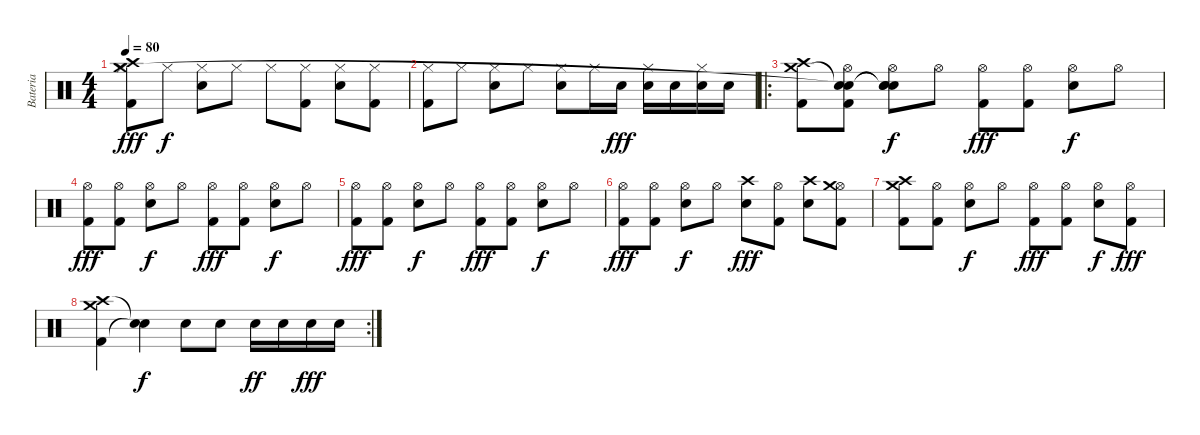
\track ("Bateria" "Bateria") {instrument percussion}
\staff {score}
\articulation defaults
\ts (4 4)
\tempo 80
\clef neutral
\ks c
("Hi-Hat (closed)" "Kick (hit) 2" "Crash high (hit)" "Crash medium (hit)").8{dy fff} "Hi-Hat (closed)".8{dy f} ("Hi-Hat (closed)" "Snare (hit) 2").8 "Hi-Hat (closed)".8 "Hi-Hat (closed)".8 ("Hi-Hat (closed)" "Kick (hit) 2").8 ("Hi-Hat (closed)" "Snare (hit) 2").8 ("Hi-Hat (closed)" "Kick (hit) 2").8 |
("Hi-Hat (closed)" "Kick (hit) 2").8 "Hi-Hat (closed)".8 ("Hi-Hat (closed)" "Snare (hit) 2").8 "Hi-Hat (closed)".8 ("Hi-Hat (closed)" "Snare (hit) 2").8 "Hi-Hat (closed)".16 "Snare (hit) 2".16{dy fff} ("Hi-Hat (closed)" "Snare (hit) 2").16 "Snare (hit) 2".16 ("Hi-Hat (closed)" "Snare (hit) 2").16 "Snare (hit) 2".16 |
\ro
("Kick (hit) 2" "Crash high (hit)" "Crash medium (hit)").8 ("Hi-Hat (open)" "Kick (hit) 2" "Snare (hit)"{t} "Snare (hit)"{t}).8 ("Hi-Hat (open)" "Snare (hit) 2" "Snare (hit)"{t} "Snare (hit)"{t}).8{dy f} "Hi-Hat (open)".8 ("Hi-Hat (open)" "Kick (hit) 2").8{dy fff} ("Hi-Hat (open)" "Kick (hit) 2").8 ("Hi-Hat (open)" "Snare (hit) 2").8{dy f} "Hi-Hat (open)".8 |
("Hi-Hat (open)" "Kick (hit) 2").8{dy fff} ("Hi-Hat (open)" "Kick (hit) 2").8 ("Hi-Hat (open)" "Snare (hit) 2").8{dy f} "Hi-Hat (open)".8 ("Hi-Hat (open)" "Kick (hit) 2").8{dy fff} ("Hi-Hat (open)" "Kick (hit) 2").8 ("Hi-Hat (open)" "Snare (hit) 2").8{dy f} "Hi-Hat (open)".8 |
("Hi-Hat (open)" "Kick (hit) 2").8{dy fff} ("Hi-Hat (open)" "Kick (hit) 2").8 ("Hi-Hat (open)" "Snare (hit) 2").8{dy f} "Hi-Hat (open)".8 ("Hi-Hat (open)" "Kick (hit) 2").8{dy fff} ("Hi-Hat (open)" "Kick (hit) 2").8 ("Hi-Hat (open)" "Snare (hit) 2").8{dy f} "Hi-Hat (open)".8 |
("Hi-Hat (open)" "Kick (hit) 2").8{dy fff} ("Hi-Hat (open)" "Kick (hit) 2").8 ("Hi-Hat (open)" "Snare (hit) 2").8{dy f} "Hi-Hat (open)".8 ("Snare (hit) 2" "Crash high (hit)").8{dy fff} ("Hi-Hat (open)" "Kick (hit) 2").8 ("Snare (hit) 2" "Crash high (hit)").8 ("Hi-Hat (open)" "Kick (hit) 2" "Crash medium (hit)").8 |
("Kick (hit) 2" "Crash high (hit)" "Crash medium (hit)").8 ("Hi-Hat (open)" "Kick (hit) 2").8 ("Hi-Hat (open)" "Snare (hit) 2").8{dy f} "Hi-Hat (open)".8 ("Hi-Hat (open)" "Kick (hit) 2").8{dy fff} ("Hi-Hat (open)" "Kick (hit) 2").8 ("Hi-Hat (open)" "Snare (hit) 2").8{dy f} ("Hi-Hat (open)" "Kick (hit) 2").8{dy fff} |
\rc 2
("Kick (hit) 2" "Crash high (hit)" "Crash medium (hit)").4 ("Snare (hit)"{t} "Snare (hit)"{t}).4{dy f} "Snare (hit) 2".8 "Snare (hit) 2".8 "Snare (hit) 2".16{dy ff} "Snare (hit) 2".16 "Snare (hit) 2".16{dy fff} "Snare (hit) 2".16
